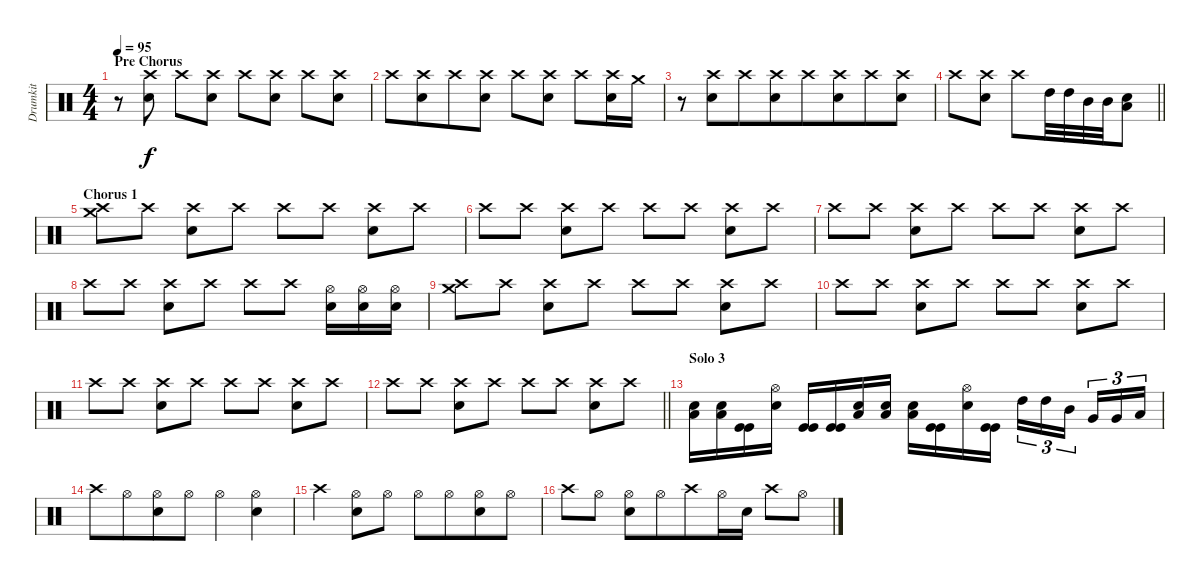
\track ("Drumkit" "Drumkit") {instrument percussion}
\staff {score}
\articulation defaults
\ts (4 4)
\section ("" "Pre Chorus")
\tempo 95
\clef neutral
\ks c
r.8{dy f} ("Crash high (hit)" "Electric Snare (hit)").8 "Crash high (hit)".8{beam merge} ("Crash high (hit)" "Electric Snare (hit)").8 "Crash high (hit)".8 ("Crash high (hit)" "Electric Snare (hit)").8 "Crash high (hit)".8 ("Crash high (hit)" "Electric Snare (hit)").8 |
"Crash high (hit)".8 ("Crash high (hit)" "Electric Snare (hit)").8{beam merge} "Crash high (hit)".8 ("Crash high (hit)" "Electric Snare (hit)").8 "Crash high (hit)".8 ("Crash high (hit)" "Electric Snare (hit)").8 "Crash high (hit)".8{beam merge} ("Crash high (hit)" "Electric Snare (hit)").16{beam merge} "Crash medium (hit)".16 |
r.8 ("Crash high (hit)" "Electric Snare (hit)").8{beam merge} "Crash high (hit)".8 ("Crash high (hit)" "Electric Snare (hit)").8{beam merge} "Crash high (hit)".8{beam merge} ("Crash high (hit)" "Electric Snare (hit)").8{beam merge} "Crash high (hit)".8 ("Crash high (hit)" "Electric Snare (hit)").8 |
\barLineRight lightlight "Crash high (hit)".8{beam merge}
("Crash high (hit)" "Electric Snare (hit)").8 "Crash high (hit)".8{beam merge} "High Tom (hit)".32 "High Tom (hit)".32 "Mid Tom (hit)".32 "Mid Tom (hit)".32{beam merge} ("Low Floor Tom (hit)" "Electric Snare (hit)").8 |
\section ("" "Chorus 1")
("Crash medium (hit)" "Crash high (hit)").8 "Crash high (hit)".8 ("Crash high (hit)" "Electric Snare (hit)").8{beam merge} "Crash high (hit)".8 "Crash high (hit)".8{beam merge} "Crash high (hit)".8 ("Crash high (hit)" "Electric Snare (hit)").8 "Crash high (hit)".8 |
"Crash high (hit)".8 "Crash high (hit)".8 ("Crash high (hit)" "Electric Snare (hit)").8{beam merge} "Crash high (hit)".8 "Crash high (hit)".8{beam merge} "Crash high (hit)".8 ("Crash high (hit)" "Electric Snare (hit)").8 "Crash high (hit)".8 |
"Crash high (hit)".8 "Crash high (hit)".8 ("Crash high (hit)" "Electric Snare (hit)").8{beam merge} "Crash high (hit)".8 "Crash high (hit)".8{beam merge} "Crash high (hit)".8 ("Crash high (hit)" "Electric Snare (hit)").8 "Crash high (hit)".8 |
"Crash high (hit)".8 "Crash high (hit)".8 ("Crash high (hit)" "Electric Snare (hit)").8{beam merge} "Crash high (hit)".8 "Crash high (hit)".8{beam merge} "Crash high (hit)".8 ("Hi-Hat (open)" "Electric Snare (hit)").16 ("Hi-Hat (open)" "Electric Snare (hit)").16 ("Hi-Hat (open)" "Electric Snare (hit)").16 |
("Crash medium (hit)" "Crash high (hit)").8 "Crash high (hit)".8 ("Crash high (hit)" "Electric Snare (hit)").8{beam merge} "Crash high (hit)".8 "Crash high (hit)".8{beam merge} "Crash high (hit)".8 ("Crash high (hit)" "Electric Snare (hit)").8 "Crash high (hit)".8 |
"Crash high (hit)".8 "Crash high (hit)".8 ("Crash high (hit)" "Electric Snare (hit)").8{beam merge} "Crash high (hit)".8 "Crash high (hit)".8{beam merge} "Crash high (hit)".8 ("Crash high (hit)" "Electric Snare (hit)").8 "Crash high (hit)".8 |
"Crash high (hit)".8 "Crash high (hit)".8 ("Crash high (hit)" "Electric Snare (hit)").8{beam merge} "Crash high (hit)".8 "Crash high (hit)".8{beam merge} "Crash high (hit)".8 ("Crash high (hit)" "Electric Snare (hit)").8 "Crash high (hit)".8 |
\barLineRight lightlight "Crash high (hit)".8 "Crash high (hit)".8
("Crash high (hit)" "Electric Snare (hit)").8{beam merge} "Crash high (hit)".8 "Crash high (hit)".8{beam merge} "Crash high (hit)".8 ("Crash high (hit)" "Electric Snare (hit)").8 "Crash high (hit)".8 |
\section ("" "Solo 3")
("Low Floor Tom (hit)" "Electric Snare (hit)").16{beam merge} ("Low Floor Tom (hit)" "Electric Snare (hit)").16 ("Kick (hit)" "Kick (hit)").16 ("Hi-Hat (open)" "Electric Snare (hit)").16 ("Kick (hit)" "Kick (hit)").16 ("Kick (hit)" "Kick (hit)").16 ("Low Floor Tom (hit)" "Electric Snare (hit)").16 ("Low Floor Tom (hit)" "Electric Snare (hit)").16 ("Low Floor Tom (hit)" "Electric Snare (hit)").16{beam merge} ("Kick (hit)" "Kick (hit)").16 ("Hi-Hat (open)" "Electric Snare (hit)").16{beam merge} ("Kick (hit)" "Kick (hit)").16 "High Tom (hit)".16{tu (3 2)} "High Tom (hit)".16{tu (3 2)} "Mid Tom (hit)".16{tu (3 2) beam splitsecondary} "Very Low Tom (hit)".16{tu (3 2)} "Very Low Tom (hit)".16{tu (3 2) beam merge} "Low Floor Tom (hit)".16{tu (3 2)} |
"Crash high (hit)".8 "Hi-Hat (open)".8{beam merge} ("Hi-Hat (open)" "Electric Snare (hit)").8 "Hi-Hat (open)".8{beam merge} "Hi-Hat (open)".4 ("Hi-Hat (open)" "Electric Snare (hit)").4 |
"Crash high (hit)".4 ("Hi-Hat (open)" "Electric Snare (hit)").8{beam merge} "Hi-Hat (open)".8 "Hi-Hat (open)".8{beam merge} "Hi-Hat (open)".8{beam merge} ("Hi-Hat (open)" "Electric Snare (hit)").8{beam merge} "Hi-Hat (open)".8 |
"Crash high (hit)".8 "Hi-Hat (open)".8 ("Hi-Hat (open)" "Electric Snare (hit)").8{beam merge} "Hi-Hat (open)".8{beam merge} "Crash high (hit)".8 "Hi-Hat (open)".16{beam merge} "Electric Snare (hit)".16 "Crash high (hit)".8 "Hi-Hat (open)".8
